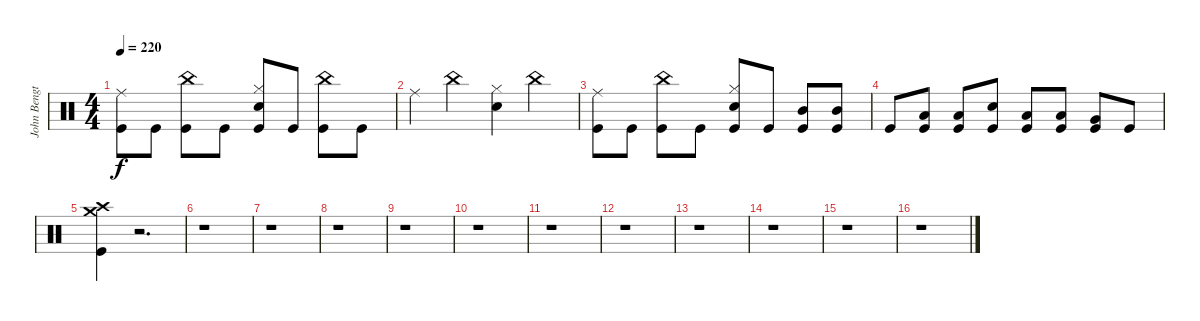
\track ("John Bengtsson" "John Bengt") {instrument percussion}
\staff {score}
\articulation defaults
\ts (4 4)
\tempo 220
\clef neutral
\ks c
("Ride (middle)" "Kick (hit)").8{dy f} "Kick (hit)".8 ("China (hit)" "Kick (hit)").8 "Kick (hit)".8 ("Hi-Hat (closed)" "Snare (hit) 2" "Kick (hit)").8 "Kick (hit)".8 ("China (hit)" "Kick (hit)").8 "Kick (hit)".8 |
"Ride (middle)".4 "China (hit)".4 ("Hi-Hat (closed)" "Snare (hit) 2").4 "China (hit)".4 |
("Ride (middle)" "Kick (hit)").8 "Kick (hit)".8 ("China (hit)" "Kick (hit)").8 "Kick (hit)".8 ("Hi-Hat (closed)" "Snare (hit) 2" "Kick (hit)").8 "Kick (hit)".8 ("Mid Tom (hit)" "Kick (hit)").8 ("Mid Tom (hit)" "Kick (hit)").8 |
"Kick (hit)".8 ("Low Tom (hit)" "Kick (hit)").8 ("Low Tom (hit)" "Kick (hit)").8 ("Snare (hit) 2" "Kick (hit)").8 ("Low Tom (hit)" "Kick (hit)").8 ("Low Tom (hit)" "Kick (hit)").8 ("Very Low Tom (hit)" "Kick (hit)").8 "Kick (hit)".8 |
("Crash medium (hit)" "Crash high (hit)" "Kick (hit)").4 r.2{d} |
r.1 |
r.1 |
r.1 |
r.1 |
r.1 |
r.1 |
r.1 |
r.1 |
r.1 |
r.1 |
r.1
